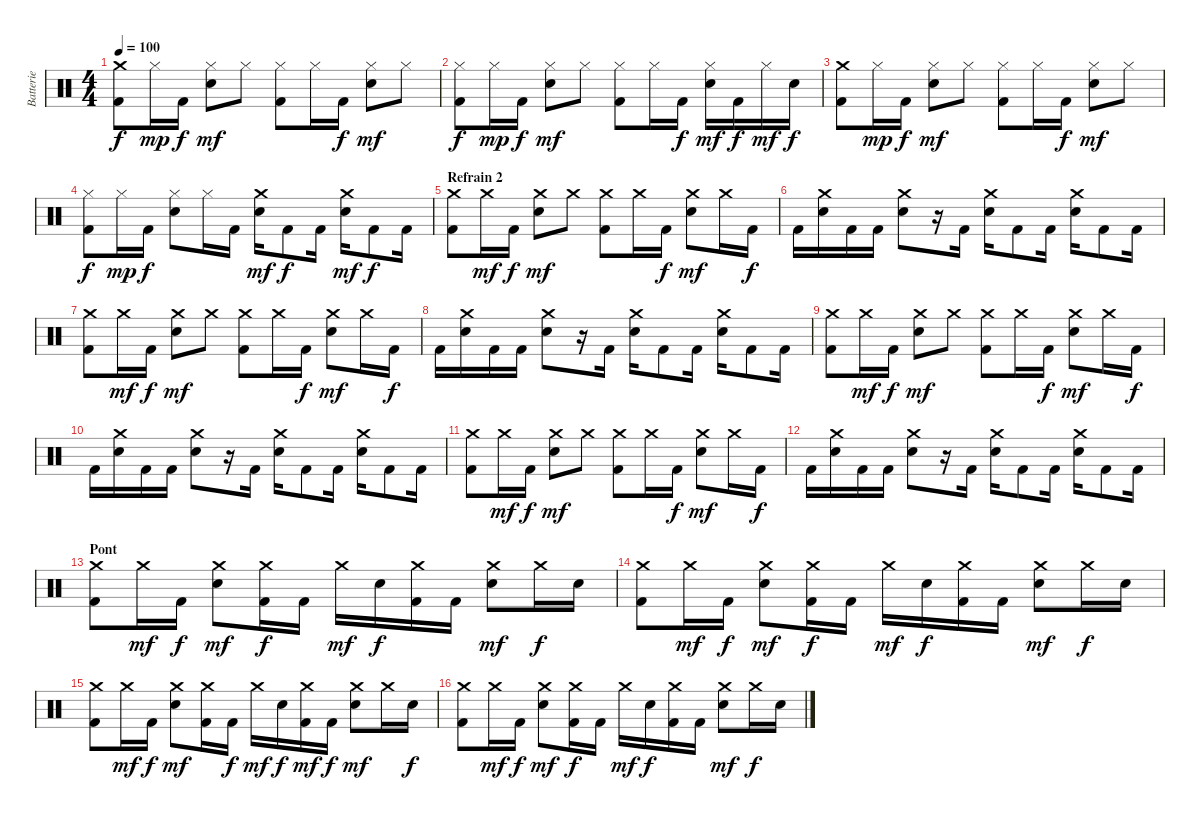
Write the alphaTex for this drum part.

\track ("Batterie" "Batterie") {instrument percussion}
\staff {score}
\articulation defaults
\ts (4 4)
\tempo 100
\clef neutral
\ks c
("Crash medium (hit)" "Kick (hit) 2").8{dy f} "Hi-Hat (closed)".16{dy mp} "Kick (hit) 2".16{dy f} ("Hi-Hat (closed)" "Electric Snare (hit)").8{dy mf} "Hi-Hat (closed)".8 ("Hi-Hat (closed)" "Kick (hit) 2").8 "Hi-Hat (closed)".16 "Kick (hit) 2".16{dy f} ("Hi-Hat (closed)" "Electric Snare (hit)").8{dy mf} "Hi-Hat (closed)".8 |
("Hi-Hat (closed)" "Kick (hit) 2").8{dy f} "Hi-Hat (closed)".16{dy mp} "Kick (hit) 2".16{dy f} ("Hi-Hat (closed)" "Electric Snare (hit)").8{dy mf} "Hi-Hat (closed)".8 ("Hi-Hat (closed)" "Kick (hit) 2").8 "Hi-Hat (closed)".16 "Kick (hit) 2".16{dy f} ("Hi-Hat (closed)" "Electric Snare (hit)").16{dy mf} "Kick (hit) 2".16{dy f} "Hi-Hat (closed)".16{dy mf} "Electric Snare (hit)".16{dy f} |
("Crash medium (hit)" "Kick (hit) 2").8 "Hi-Hat (closed)".16{dy mp} "Kick (hit) 2".16{dy f} ("Hi-Hat (closed)" "Electric Snare (hit)").8{dy mf} "Hi-Hat (closed)".8 ("Hi-Hat (closed)" "Kick (hit) 2").8 "Hi-Hat (closed)".16 "Kick (hit) 2".16{dy f} ("Hi-Hat (closed)" "Electric Snare (hit)").8{dy mf} "Hi-Hat (closed)".8 |
("Hi-Hat (closed)" "Kick (hit) 2").8{dy f} "Hi-Hat (closed)".16{dy mp} "Kick (hit) 2".16{dy f} ("Hi-Hat (closed)" "Electric Snare (hit)").8 "Hi-Hat (closed)".16 "Kick (hit) 2".16 ("Crash medium (hit)" "Electric Snare (hit)").16{dy mf} "Kick (hit) 2".8{dy f} "Kick (hit) 2".16 ("Crash medium (hit)" "Electric Snare (hit)").16{dy mf} "Kick (hit) 2".8{dy f} "Kick (hit) 2".16 |
\section ("" "Refrain 2")
("Crash medium (hit)" "Kick (hit) 2").8 "Crash medium (hit)".16{dy mf} "Kick (hit) 2".16{dy f} ("Crash medium (hit)" "Electric Snare (hit)").8{dy mf} "Crash medium (hit)".8 ("Crash medium (hit)" "Kick (hit) 2").8 "Crash medium (hit)".16 "Kick (hit) 2".16{dy f} ("Crash medium (hit)" "Electric Snare (hit)").8{dy mf} "Crash medium (hit)".16 "Kick (hit) 2".16{dy f} |
"Kick (hit) 2".16 ("Crash medium (hit)" "Electric Snare (hit)").16 "Kick (hit) 2".16 "Kick (hit) 2".16 ("Crash medium (hit)" "Electric Snare (hit)").8 r.16 "Kick (hit) 2".16 ("Crash medium (hit)" "Electric Snare (hit)").16 "Kick (hit) 2".8 "Kick (hit) 2".16 ("Crash medium (hit)" "Electric Snare (hit)").16 "Kick (hit) 2".8 "Kick (hit) 2".16 |
("Crash medium (hit)" "Kick (hit) 2").8 "Crash medium (hit)".16{dy mf} "Kick (hit) 2".16{dy f} ("Crash medium (hit)" "Electric Snare (hit)").8{dy mf} "Crash medium (hit)".8 ("Crash medium (hit)" "Kick (hit) 2").8 "Crash medium (hit)".16 "Kick (hit) 2".16{dy f} ("Crash medium (hit)" "Electric Snare (hit)").8{dy mf} "Crash medium (hit)".16 "Kick (hit) 2".16{dy f} |
"Kick (hit) 2".16 ("Crash medium (hit)" "Electric Snare (hit)").16 "Kick (hit) 2".16 "Kick (hit) 2".16 ("Crash medium (hit)" "Electric Snare (hit)").8 r.16 "Kick (hit) 2".16 ("Crash medium (hit)" "Electric Snare (hit)").16 "Kick (hit) 2".8 "Kick (hit) 2".16 ("Crash medium (hit)" "Electric Snare (hit)").16 "Kick (hit) 2".8 "Kick (hit) 2".16 |
("Crash medium (hit)" "Kick (hit) 2").8 "Crash medium (hit)".16{dy mf} "Kick (hit) 2".16{dy f} ("Crash medium (hit)" "Electric Snare (hit)").8{dy mf} "Crash medium (hit)".8 ("Crash medium (hit)" "Kick (hit) 2").8 "Crash medium (hit)".16 "Kick (hit) 2".16{dy f} ("Crash medium (hit)" "Electric Snare (hit)").8{dy mf} "Crash medium (hit)".16 "Kick (hit) 2".16{dy f} |
"Kick (hit) 2".16 ("Crash medium (hit)" "Electric Snare (hit)").16 "Kick (hit) 2".16 "Kick (hit) 2".16 ("Crash medium (hit)" "Electric Snare (hit)").8 r.16 "Kick (hit) 2".16 ("Crash medium (hit)" "Electric Snare (hit)").16 "Kick (hit) 2".8 "Kick (hit) 2".16 ("Crash medium (hit)" "Electric Snare (hit)").16 "Kick (hit) 2".8 "Kick (hit) 2".16 |
("Crash medium (hit)" "Kick (hit) 2").8 "Crash medium (hit)".16{dy mf} "Kick (hit) 2".16{dy f} ("Crash medium (hit)" "Electric Snare (hit)").8{dy mf} "Crash medium (hit)".8 ("Crash medium (hit)" "Kick (hit) 2").8 "Crash medium (hit)".16 "Kick (hit) 2".16{dy f} ("Crash medium (hit)" "Electric Snare (hit)").8{dy mf} "Crash medium (hit)".16 "Kick (hit) 2".16{dy f} |
"Kick (hit) 2".16 ("Crash medium (hit)" "Electric Snare (hit)").16 "Kick (hit) 2".16 "Kick (hit) 2".16 ("Crash medium (hit)" "Electric Snare (hit)").8 r.16 "Kick (hit) 2".16 ("Crash medium (hit)" "Electric Snare (hit)").16 "Kick (hit) 2".8 "Kick (hit) 2".16 ("Crash medium (hit)" "Electric Snare (hit)").16 "Kick (hit) 2".8 "Kick (hit) 2".16 |
\section ("" "Pont")
("Crash medium (hit)" "Kick (hit) 2").8 "Crash medium (hit)".16{dy mf} "Kick (hit) 2".16{dy f} ("Crash medium (hit)" "Electric Snare (hit)").8{dy mf} ("Crash medium (hit)" "Kick (hit) 2").16{dy f} "Kick (hit) 2".16 "Crash medium (hit)".16{dy mf} "Electric Snare (hit)".16{dy f} ("Crash medium (hit)" "Kick (hit) 2").16 "Kick (hit) 2".16 ("Crash medium (hit)" "Electric Snare (hit)").8{dy mf} "Crash medium (hit)".16{dy f} "Electric Snare (hit)".16 |
("Crash medium (hit)" "Kick (hit) 2").8 "Crash medium (hit)".16{dy mf} "Kick (hit) 2".16{dy f} ("Crash medium (hit)" "Electric Snare (hit)").8{dy mf} ("Crash medium (hit)" "Kick (hit) 2").16{dy f} "Kick (hit) 2".16 "Crash medium (hit)".16{dy mf} "Electric Snare (hit)".16{dy f} ("Crash medium (hit)" "Kick (hit) 2").16 "Kick (hit) 2".16 ("Crash medium (hit)" "Electric Snare (hit)").8{dy mf} "Crash medium (hit)".16{dy f} "Electric Snare (hit)".16 |
("Crash medium (hit)" "Kick (hit) 2").8 "Crash medium (hit)".16{dy mf} "Kick (hit) 2".16{dy f} ("Crash medium (hit)" "Electric Snare (hit)").8{dy mf} ("Crash medium (hit)" "Kick (hit) 2").16 "Kick (hit) 2".16{dy f} "Crash medium (hit)".16{dy mf} "Electric Snare (hit)".16{dy f} ("Crash medium (hit)" "Kick (hit) 2").16{dy mf} "Kick (hit) 2".16{dy f} ("Crash medium (hit)" "Electric Snare (hit)").8{dy mf} "Crash medium (hit)".16 "Electric Snare (hit)".16{dy f} |
("Crash medium (hit)" "Kick (hit) 2").8 "Crash medium (hit)".16{dy mf} "Kick (hit) 2".16{dy f} ("Crash medium (hit)" "Electric Snare (hit)").8{dy mf} ("Crash medium (hit)" "Kick (hit) 2").16{dy f} "Kick (hit) 2".16 "Crash medium (hit)".16{dy mf} "Electric Snare (hit)".16{dy f} ("Crash medium (hit)" "Kick (hit) 2").16 "Kick (hit) 2".16 ("Crash medium (hit)" "Electric Snare (hit)").8{dy mf} "Crash medium (hit)".16{dy f} "Electric Snare (hit)".16
